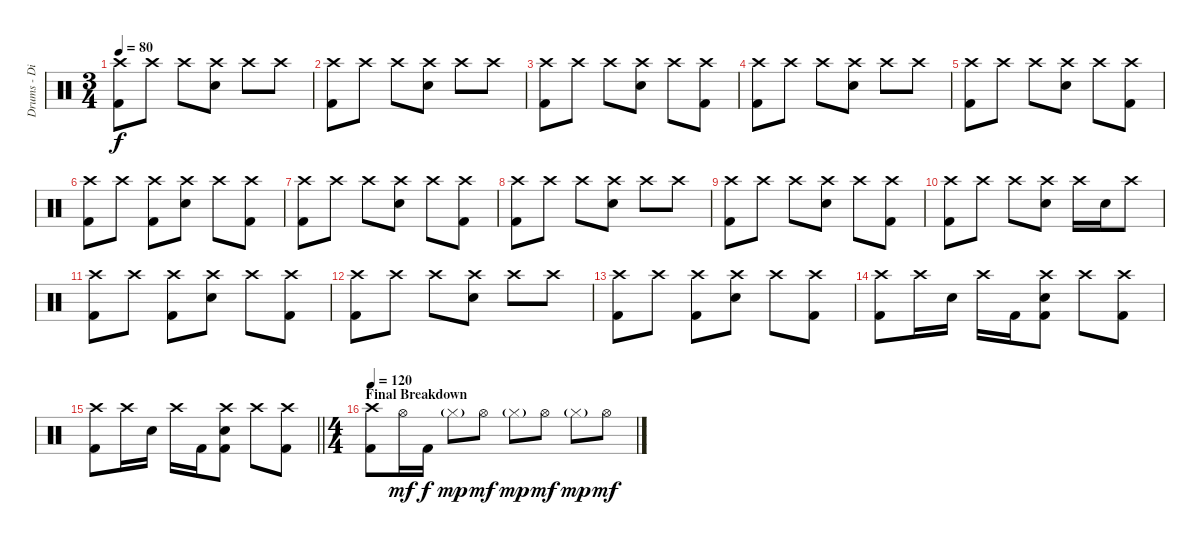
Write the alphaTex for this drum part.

\track ("Drums - Dino Campanella" "Drums - Di") {instrument percussion}
\staff {score}
\articulation defaults
\ts (3 4)
\tempo 80
\clef neutral
\ks c
("Crash high (hit)" "Kick (hit) 2").8{dy f} "Crash high (hit)".8 "Crash high (hit)".8 ("Crash high (hit)" "Electric Snare (hit)").8 "Crash high (hit)".8 "Crash high (hit)".8 |
("Crash high (hit)" "Kick (hit) 2").8 "Crash high (hit)".8 "Crash high (hit)".8 ("Crash high (hit)" "Electric Snare (hit)").8 "Crash high (hit)".8 "Crash high (hit)".8 |
("Crash high (hit)" "Kick (hit) 2").8 "Crash high (hit)".8 "Crash high (hit)".8 ("Crash high (hit)" "Electric Snare (hit)").8 "Crash high (hit)".8 ("Crash high (hit)" "Kick (hit) 2").8 |
("Crash high (hit)" "Kick (hit) 2").8 "Crash high (hit)".8 "Crash high (hit)".8 ("Crash high (hit)" "Electric Snare (hit)").8 "Crash high (hit)".8 "Crash high (hit)".8 |
("Crash high (hit)" "Kick (hit) 2").8 "Crash high (hit)".8 "Crash high (hit)".8 ("Crash high (hit)" "Electric Snare (hit)").8 "Crash high (hit)".8 ("Crash high (hit)" "Kick (hit) 2").8 |
("Crash high (hit)" "Kick (hit) 2").8 "Crash high (hit)".8 ("Crash high (hit)" "Kick (hit) 2").8 ("Crash high (hit)" "Electric Snare (hit)").8 "Crash high (hit)".8 ("Crash high (hit)" "Kick (hit) 2").8 |
("Crash high (hit)" "Kick (hit) 2").8 "Crash high (hit)".8 "Crash high (hit)".8 ("Crash high (hit)" "Electric Snare (hit)").8 "Crash high (hit)".8 ("Crash high (hit)" "Kick (hit) 2").8 |
("Crash high (hit)" "Kick (hit) 2").8 "Crash high (hit)".8 "Crash high (hit)".8 ("Crash high (hit)" "Electric Snare (hit)").8 "Crash high (hit)".8 "Crash high (hit)".8 |
("Crash high (hit)" "Kick (hit) 2").8 "Crash high (hit)".8 "Crash high (hit)".8 ("Crash high (hit)" "Electric Snare (hit)").8 "Crash high (hit)".8 ("Crash high (hit)" "Kick (hit) 2").8 |
("Crash high (hit)" "Kick (hit) 2").8 "Crash high (hit)".8 "Crash high (hit)".8 ("Crash high (hit)" "Electric Snare (hit)").8 "Crash high (hit)".16 "Electric Snare (hit)".16 "Crash high (hit)".8 |
("Crash high (hit)" "Kick (hit) 2").8 "Crash high (hit)".8 ("Crash high (hit)" "Kick (hit) 2").8 ("Crash high (hit)" "Electric Snare (hit)").8 "Crash high (hit)".8 ("Crash high (hit)" "Kick (hit) 2").8 |
("Crash high (hit)" "Kick (hit) 2").8 "Crash high (hit)".8 "Crash high (hit)".8 ("Crash high (hit)" "Electric Snare (hit)").8 "Crash high (hit)".8 "Crash high (hit)".8 |
("Crash high (hit)" "Kick (hit) 2").8 "Crash high (hit)".8 ("Crash high (hit)" "Kick (hit) 2").8 ("Crash high (hit)" "Electric Snare (hit)").8 "Crash high (hit)".8 ("Crash high (hit)" "Kick (hit) 2").8 |
("Crash high (hit)" "Kick (hit) 2").8 "Crash high (hit)".16 "Electric Snare (hit)".16 "Crash high (hit)".16 "Kick (hit) 2".16 ("Crash high (hit)" "Electric Snare (hit)" "Kick (hit) 2").8 "Crash high (hit)".8 ("Crash high (hit)" "Kick (hit) 2").8 |
\barLineRight lightlight
("Crash high (hit)" "Kick (hit) 2").8 "Crash high (hit)".16 "Electric Snare (hit)".16 "Crash high (hit)".16 "Kick (hit) 2".16 ("Crash high (hit)" "Electric Snare (hit)" "Kick (hit) 2").8 "Crash high (hit)".8 ("Crash high (hit)" "Kick (hit) 2").8 |
\ts (4 4)
\section ("" "Final Breakdown")
\tempo 120
("Crash high (hit)" "Kick (hit) 2").8 "Hi-Hat (open)".16{dy mf} "Kick (hit) 2".16{dy f} "Hi-Hat (closed)"{g}.8{dy mp} "Hi-Hat (open)".8{dy mf} "Hi-Hat (closed)"{g}.8{dy mp} "Hi-Hat (open)".8{dy mf} "Hi-Hat (closed)"{g}.8{dy mp} "Hi-Hat (open)".8{dy mf}
